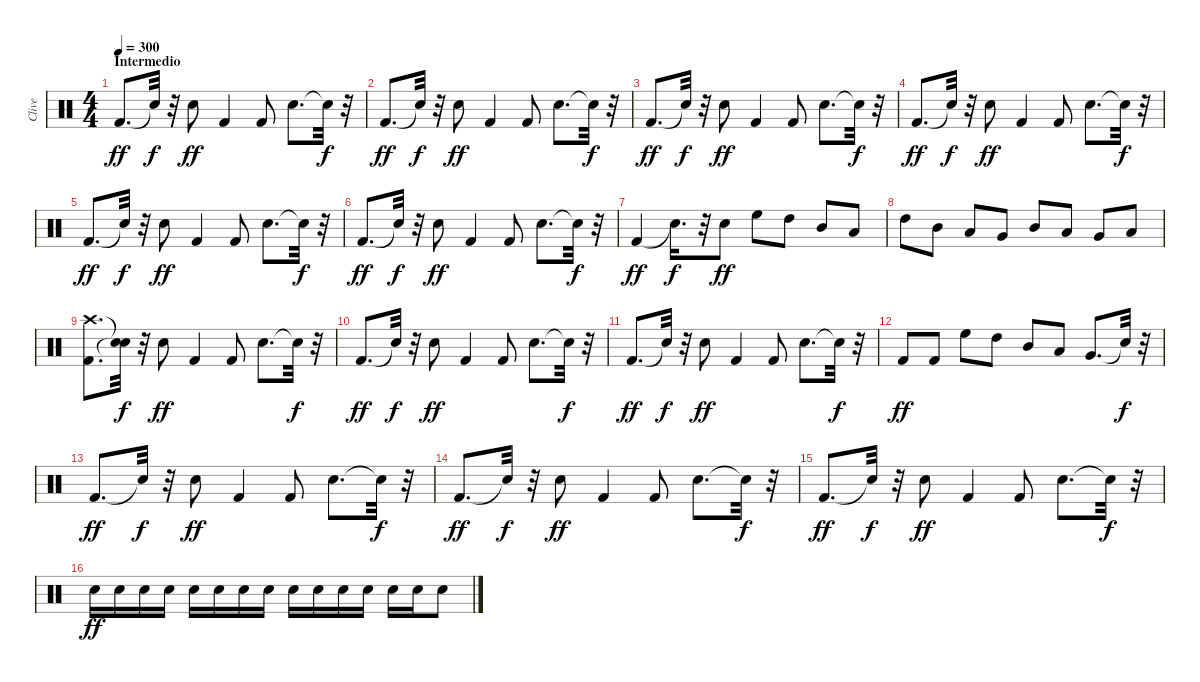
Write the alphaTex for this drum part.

\track ("Clive" "Clive") {instrument percussion}
\staff {score}
\articulation defaults
\ts (4 4)
\section ("" "Intermedio")
\tempo 300
\clef neutral
\ks c "Kick (hit) 2".8{d dy ff} "Snare (hit)"{t}.32{dy f}
r.32 "Snare (hit) 2".8{dy ff} "Kick (hit) 2".4 "Kick (hit) 2".8 "Snare (hit) 2".8{d} "Snare (hit)"{t}.32{dy f} r.32 |
"Kick (hit) 2".8{d dy ff} "Snare (hit)"{t}.32{dy f} r.32 "Snare (hit) 2".8{dy ff} "Kick (hit) 2".4 "Kick (hit) 2".8 "Snare (hit) 2".8{d} "Snare (hit)"{t}.32{dy f} r.32 |
"Kick (hit) 2".8{d dy ff} "Snare (hit)"{t}.32{dy f} r.32 "Snare (hit) 2".8{dy ff} "Kick (hit) 2".4 "Kick (hit) 2".8 "Snare (hit) 2".8{d} "Snare (hit)"{t}.32{dy f} r.32 |
"Kick (hit) 2".8{d dy ff} "Snare (hit)"{t}.32{dy f} r.32 "Snare (hit) 2".8{dy ff} "Kick (hit) 2".4 "Kick (hit) 2".8 "Snare (hit) 2".8{d} "Snare (hit)"{t}.32{dy f} r.32 |
"Kick (hit) 2".8{d dy ff} "Snare (hit)"{t}.32{dy f} r.32 "Snare (hit) 2".8{dy ff} "Kick (hit) 2".4 "Kick (hit) 2".8 "Snare (hit) 2".8{d} "Snare (hit)"{t}.32{dy f} r.32 |
"Kick (hit) 2".8{d dy ff} "Snare (hit)"{t}.32{dy f} r.32 "Snare (hit) 2".8{dy ff} "Kick (hit) 2".4 "Kick (hit) 2".8 "Snare (hit) 2".8{d} "Snare (hit)"{t}.32{dy f} r.32 |
"Kick (hit) 2".4{dy ff} "Snare (hit)"{t}.16{d dy f} r.32 "Snare (hit) 2".8{dy ff} "High Floor Tom (hit)".8 "High Tom (hit)".8 "Mid Tom (hit)".8 "Low Tom (hit)".8 |
"High Tom (hit)".8 "Mid Tom (hit)".8 "Low Tom (hit)".8 "Very Low Tom (hit)".8 "Mid Tom (hit)".8 "Low Tom (hit)".8 "Very Low Tom (hit)".8 "Low Floor Tom (hit)".8 |
("Kick (hit) 2" "Crash high (hit)").8{d} ("Snare (hit)"{t} "Snare (hit)"{t}).32{dy f} r.32 "Snare (hit) 2".8{dy ff} "Kick (hit) 2".4 "Kick (hit) 2".8 "Snare (hit) 2".8{d} "Snare (hit)"{t}.32{dy f} r.32 |
"Kick (hit) 2".8{d dy ff} "Snare (hit)"{t}.32{dy f} r.32 "Snare (hit) 2".8{dy ff} "Kick (hit) 2".4 "Kick (hit) 2".8 "Snare (hit) 2".8{d} "Snare (hit)"{t}.32{dy f} r.32 |
"Kick (hit) 2".8{d dy ff} "Snare (hit)"{t}.32{dy f} r.32 "Snare (hit) 2".8{dy ff} "Kick (hit) 2".4 "Kick (hit) 2".8 "Snare (hit) 2".8{d} "Snare (hit)"{t}.32{dy f} r.32 |
"Kick (hit) 2".8{dy ff} "Kick (hit) 2".8 "High Floor Tom (hit)".8 "High Tom (hit)".8 "Mid Tom (hit)".8 "Low Tom (hit)".8 "Very Low Tom (hit)".8{d} "Snare (hit)"{t}.32{dy f} r.32 |
"Kick (hit) 2".8{d dy ff} "Snare (hit)"{t}.32{dy f} r.32 "Snare (hit) 2".8{dy ff} "Kick (hit) 2".4 "Kick (hit) 2".8 "Snare (hit) 2".8{d} "Snare (hit)"{t}.32{dy f} r.32 |
"Kick (hit) 2".8{d dy ff} "Snare (hit)"{t}.32{dy f} r.32 "Snare (hit) 2".8{dy ff} "Kick (hit) 2".4 "Kick (hit) 2".8 "Snare (hit) 2".8{d} "Snare (hit)"{t}.32{dy f} r.32 |
"Kick (hit) 2".8{d dy ff} "Snare (hit)"{t}.32{dy f} r.32 "Snare (hit) 2".8{dy ff} "Kick (hit) 2".4 "Kick (hit) 2".8 "Snare (hit) 2".8{d} "Snare (hit)"{t}.32{dy f} r.32 |
"Snare (hit) 2".16{dy ff} "Snare (hit) 2".16 "Snare (hit) 2".16 "Snare (hit) 2".16 "Snare (hit) 2".16 "Snare (hit) 2".16 "Snare (hit) 2".16 "Snare (hit) 2".16 "Snare (hit) 2".16 "Snare (hit) 2".16 "Snare (hit) 2".16 "Snare (hit) 2".16 "Snare (hit) 2".16 "Snare (hit) 2".16 "Snare (hit) 2".8
